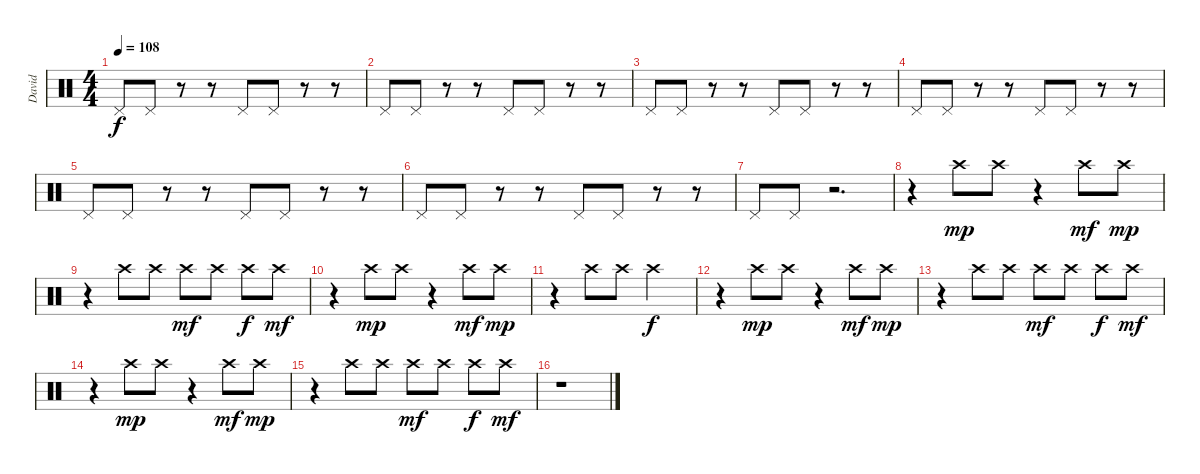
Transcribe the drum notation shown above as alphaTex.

\track ("David" "David") {instrument percussion}
\staff {score}
\articulation defaults
\ts (4 4)
\tempo 108
\clef neutral
\ks c "Pedal Hi-Hat (hit)".8{dy f} "Pedal Hi-Hat (hit)".8
r.8 r.8 "Pedal Hi-Hat (hit)".8 "Pedal Hi-Hat (hit)".8 r.8 r.8 |
"Pedal Hi-Hat (hit)".8 "Pedal Hi-Hat (hit)".8 r.8 r.8 "Pedal Hi-Hat (hit)".8 "Pedal Hi-Hat (hit)".8 r.8 r.8 |
"Pedal Hi-Hat (hit)".8 "Pedal Hi-Hat (hit)".8 r.8 r.8 "Pedal Hi-Hat (hit)".8 "Pedal Hi-Hat (hit)".8 r.8 r.8 |
"Pedal Hi-Hat (hit)".8 "Pedal Hi-Hat (hit)".8 r.8 r.8 "Pedal Hi-Hat (hit)".8 "Pedal Hi-Hat (hit)".8 r.8 r.8 |
"Pedal Hi-Hat (hit)".8 "Pedal Hi-Hat (hit)".8 r.8 r.8 "Pedal Hi-Hat (hit)".8 "Pedal Hi-Hat (hit)".8 r.8 r.8 |
"Pedal Hi-Hat (hit)".8 "Pedal Hi-Hat (hit)".8 r.8 r.8 "Pedal Hi-Hat (hit)".8 "Pedal Hi-Hat (hit)".8 r.8 r.8 |
"Pedal Hi-Hat (hit)".8 "Pedal Hi-Hat (hit)".8 r.2{d} |
r.4 "Crash high (hit)".8{dy mp} "Crash high (hit)".8 r.4 "Crash high (hit)".8{dy mf} "Crash high (hit)".8{dy mp} |
r.4 "Crash high (hit)".8 "Crash high (hit)".8 "Crash high (hit)".8{dy mf} "Crash high (hit)".8 "Crash high (hit)".8{dy f} "Crash high (hit)".8{dy mf} |
r.4 "Crash high (hit)".8{dy mp} "Crash high (hit)".8 r.4 "Crash high (hit)".8{dy mf} "Crash high (hit)".8{dy mp} |
r.4 "Crash high (hit)".8 "Crash high (hit)".8 "Crash high (hit)".2{dy f} |
r.4 "Crash high (hit)".8{dy mp} "Crash high (hit)".8 r.4 "Crash high (hit)".8{dy mf} "Crash high (hit)".8{dy mp} |
r.4 "Crash high (hit)".8 "Crash high (hit)".8 "Crash high (hit)".8{dy mf} "Crash high (hit)".8 "Crash high (hit)".8{dy f} "Crash high (hit)".8{dy mf} |
r.4 "Crash high (hit)".8{dy mp} "Crash high (hit)".8 r.4 "Crash high (hit)".8{dy mf} "Crash high (hit)".8{dy mp} |
r.4 "Crash high (hit)".8 "Crash high (hit)".8 "Crash high (hit)".8{dy mf} "Crash high (hit)".8 "Crash high (hit)".8{dy f} "Crash high (hit)".8{dy mf} |
r.1
